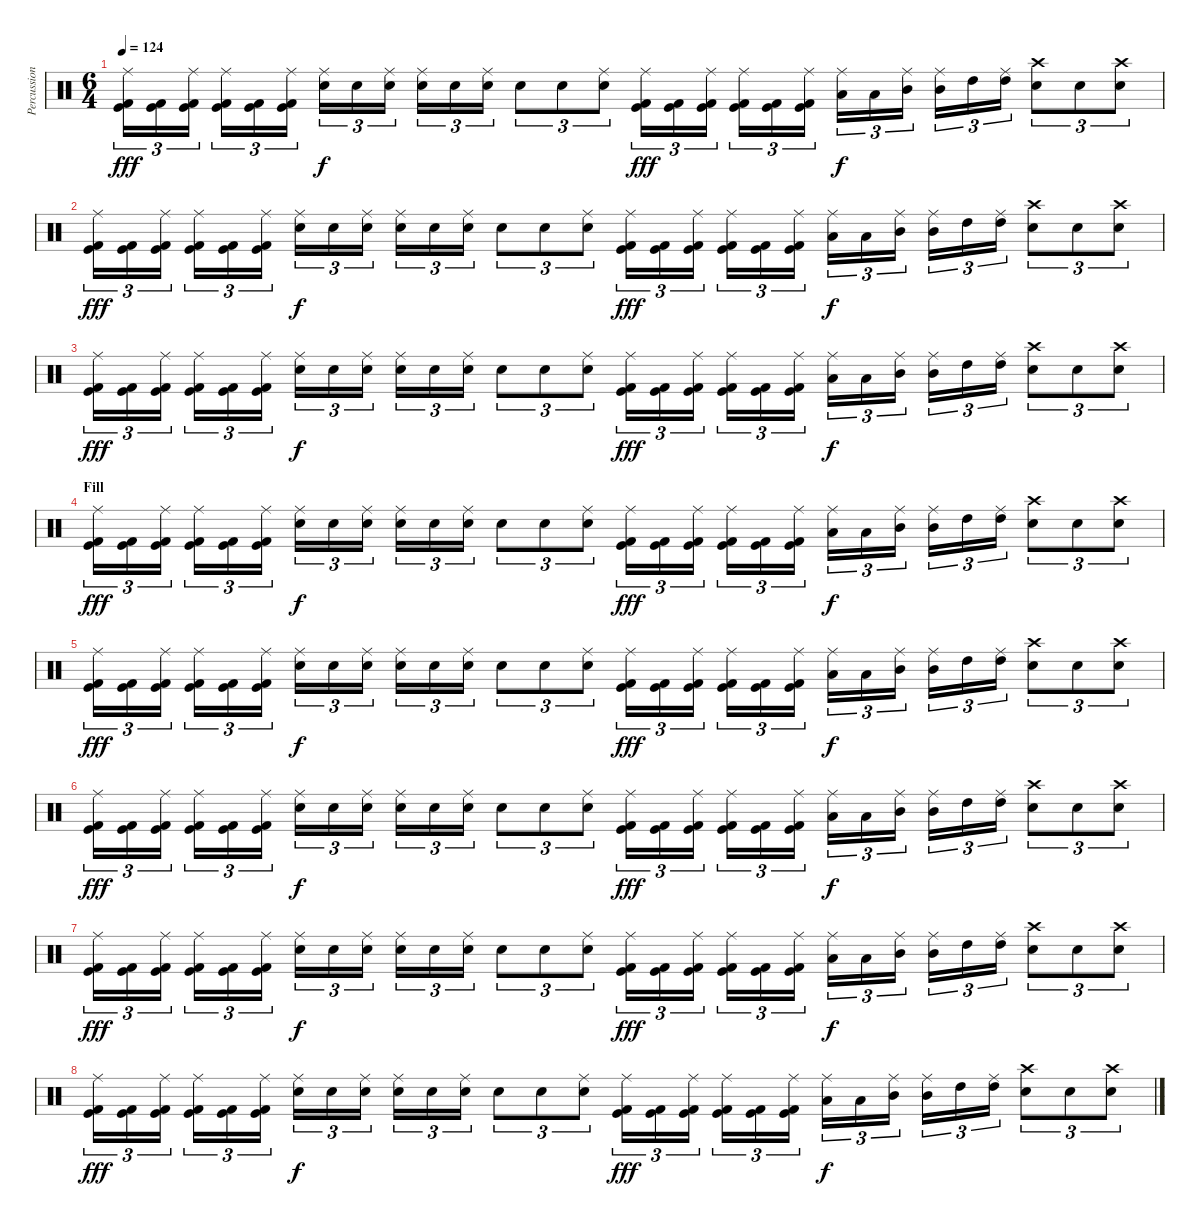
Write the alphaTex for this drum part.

\track ("Percussion" "Percussion") {instrument percussion}
\staff {score}
\articulation defaults
\ts (6 4)
\tempo 124
\clef neutral
\ks c
("Ride (middle)" "Kick (hit) 2" "Kick (hit)").16{tu (3 2) dy fff} ("Kick (hit) 2" "Kick (hit)").16{tu (3 2)} ("Ride (middle)" "Kick (hit) 2" "Kick (hit)").16{tu (3 2)} ("Ride (middle)" "Kick (hit) 2" "Kick (hit)").16{tu (3 2)} ("Kick (hit) 2" "Kick (hit)").16{tu (3 2)} ("Ride (middle)" "Kick (hit) 2" "Kick (hit)").16{tu (3 2)} ("Ride (middle)" "Snare (hit) 2").16{tu (3 2) dy f} "Snare (hit) 2".16{tu (3 2)} ("Ride (middle)" "Snare (hit) 2").16{tu (3 2)} ("Ride (middle)" "Snare (hit) 2").16{tu (3 2)} "Snare (hit) 2".16{tu (3 2)} ("Ride (middle)" "Snare (hit) 2").16{tu (3 2)} "Snare (hit) 2".8{tu (3 2)} "Snare (hit) 2".8{tu (3 2)} ("Ride (middle)" "Snare (hit) 2").8{tu (3 2)} ("Ride (middle)" "Kick (hit) 2" "Kick (hit)").16{tu (3 2) dy fff} ("Kick (hit) 2" "Kick (hit)").16{tu (3 2)} ("Ride (middle)" "Kick (hit) 2" "Kick (hit)").16{tu (3 2)} ("Ride (middle)" "Kick (hit) 2" "Kick (hit)").16{tu (3 2)} ("Kick (hit) 2" "Kick (hit)").16{tu (3 2)} ("Ride (middle)" "Kick (hit) 2" "Kick (hit)").16{tu (3 2)} ("Ride (middle)" "Low Tom (hit)").16{tu (3 2) dy f} "Low Tom (hit)".16{tu (3 2)} ("Ride (middle)" "Mid Tom (hit)").16{tu (3 2)} ("Ride (middle)" "Mid Tom (hit)").16{tu (3 2)} "High Tom (hit)".16{tu (3 2)} ("Ride (middle)" "High Tom (hit)").16{tu (3 2)} ("Crash high (hit)" "Snare (hit) 2").8{tu (3 2)} "Snare (hit) 2".8{tu (3 2)} ("Crash high (hit)" "Snare (hit) 2").8{tu (3 2)} |
("Ride (middle)" "Kick (hit) 2" "Kick (hit)").16{tu (3 2) dy fff} ("Kick (hit) 2" "Kick (hit)").16{tu (3 2)} ("Ride (middle)" "Kick (hit) 2" "Kick (hit)").16{tu (3 2)} ("Ride (middle)" "Kick (hit) 2" "Kick (hit)").16{tu (3 2)} ("Kick (hit) 2" "Kick (hit)").16{tu (3 2)} ("Ride (middle)" "Kick (hit) 2" "Kick (hit)").16{tu (3 2)} ("Ride (middle)" "Snare (hit) 2").16{tu (3 2) dy f} "Snare (hit) 2".16{tu (3 2)} ("Ride (middle)" "Snare (hit) 2").16{tu (3 2)} ("Ride (middle)" "Snare (hit) 2").16{tu (3 2)} "Snare (hit) 2".16{tu (3 2)} ("Ride (middle)" "Snare (hit) 2").16{tu (3 2)} "Snare (hit) 2".8{tu (3 2)} "Snare (hit) 2".8{tu (3 2)} ("Ride (middle)" "Snare (hit) 2").8{tu (3 2)} ("Ride (middle)" "Kick (hit) 2" "Kick (hit)").16{tu (3 2) dy fff} ("Kick (hit) 2" "Kick (hit)").16{tu (3 2)} ("Ride (middle)" "Kick (hit) 2" "Kick (hit)").16{tu (3 2)} ("Ride (middle)" "Kick (hit) 2" "Kick (hit)").16{tu (3 2)} ("Kick (hit) 2" "Kick (hit)").16{tu (3 2)} ("Ride (middle)" "Kick (hit) 2" "Kick (hit)").16{tu (3 2)} ("Ride (middle)" "Low Tom (hit)").16{tu (3 2) dy f} "Low Tom (hit)".16{tu (3 2)} ("Ride (middle)" "Mid Tom (hit)").16{tu (3 2)} ("Ride (middle)" "Mid Tom (hit)").16{tu (3 2)} "High Tom (hit)".16{tu (3 2)} ("Ride (middle)" "High Tom (hit)").16{tu (3 2)} ("Crash high (hit)" "Snare (hit) 2").8{tu (3 2)} "Snare (hit) 2".8{tu (3 2)} ("Crash high (hit)" "Snare (hit) 2").8{tu (3 2)} |
("Ride (middle)" "Kick (hit) 2" "Kick (hit)").16{tu (3 2) dy fff} ("Kick (hit) 2" "Kick (hit)").16{tu (3 2)} ("Ride (middle)" "Kick (hit) 2" "Kick (hit)").16{tu (3 2)} ("Ride (middle)" "Kick (hit) 2" "Kick (hit)").16{tu (3 2)} ("Kick (hit) 2" "Kick (hit)").16{tu (3 2)} ("Ride (middle)" "Kick (hit) 2" "Kick (hit)").16{tu (3 2)} ("Ride (middle)" "Snare (hit) 2").16{tu (3 2) dy f} "Snare (hit) 2".16{tu (3 2)} ("Ride (middle)" "Snare (hit) 2").16{tu (3 2)} ("Ride (middle)" "Snare (hit) 2").16{tu (3 2)} "Snare (hit) 2".16{tu (3 2)} ("Ride (middle)" "Snare (hit) 2").16{tu (3 2)} "Snare (hit) 2".8{tu (3 2)} "Snare (hit) 2".8{tu (3 2)} ("Ride (middle)" "Snare (hit) 2").8{tu (3 2)} ("Ride (middle)" "Kick (hit) 2" "Kick (hit)").16{tu (3 2) dy fff} ("Kick (hit) 2" "Kick (hit)").16{tu (3 2)} ("Ride (middle)" "Kick (hit) 2" "Kick (hit)").16{tu (3 2)} ("Ride (middle)" "Kick (hit) 2" "Kick (hit)").16{tu (3 2)} ("Kick (hit) 2" "Kick (hit)").16{tu (3 2)} ("Ride (middle)" "Kick (hit) 2" "Kick (hit)").16{tu (3 2)} ("Ride (middle)" "Low Tom (hit)").16{tu (3 2) dy f} "Low Tom (hit)".16{tu (3 2)} ("Ride (middle)" "Mid Tom (hit)").16{tu (3 2)} ("Ride (middle)" "Mid Tom (hit)").16{tu (3 2)} "High Tom (hit)".16{tu (3 2)} ("Ride (middle)" "High Tom (hit)").16{tu (3 2)} ("Crash high (hit)" "Snare (hit) 2").8{tu (3 2)} "Snare (hit) 2".8{tu (3 2)} ("Crash high (hit)" "Snare (hit) 2").8{tu (3 2)} |
\section ("" "Fill")
("Ride (middle)" "Kick (hit) 2" "Kick (hit)").16{tu (3 2) dy fff} ("Kick (hit) 2" "Kick (hit)").16{tu (3 2)} ("Ride (middle)" "Kick (hit) 2" "Kick (hit)").16{tu (3 2)} ("Ride (middle)" "Kick (hit) 2" "Kick (hit)").16{tu (3 2)} ("Kick (hit) 2" "Kick (hit)").16{tu (3 2)} ("Ride (middle)" "Kick (hit) 2" "Kick (hit)").16{tu (3 2)} ("Ride (middle)" "Snare (hit) 2").16{tu (3 2) dy f} "Snare (hit) 2".16{tu (3 2)} ("Ride (middle)" "Snare (hit) 2").16{tu (3 2)} ("Ride (middle)" "Snare (hit) 2").16{tu (3 2)} "Snare (hit) 2".16{tu (3 2)} ("Ride (middle)" "Snare (hit) 2").16{tu (3 2)} "Snare (hit) 2".8{tu (3 2)} "Snare (hit) 2".8{tu (3 2)} ("Ride (middle)" "Snare (hit) 2").8{tu (3 2)} ("Ride (middle)" "Kick (hit) 2" "Kick (hit)").16{tu (3 2) dy fff} ("Kick (hit) 2" "Kick (hit)").16{tu (3 2)} ("Ride (middle)" "Kick (hit) 2" "Kick (hit)").16{tu (3 2)} ("Ride (middle)" "Kick (hit) 2" "Kick (hit)").16{tu (3 2)} ("Kick (hit) 2" "Kick (hit)").16{tu (3 2)} ("Ride (middle)" "Kick (hit) 2" "Kick (hit)").16{tu (3 2)} ("Ride (middle)" "Low Tom (hit)").16{tu (3 2) dy f} "Low Tom (hit)".16{tu (3 2)} ("Ride (middle)" "Mid Tom (hit)").16{tu (3 2)} ("Ride (middle)" "Mid Tom (hit)").16{tu (3 2)} "High Tom (hit)".16{tu (3 2)} ("Ride (middle)" "High Tom (hit)").16{tu (3 2)} ("Crash high (hit)" "Snare (hit) 2").8{tu (3 2)} "Snare (hit) 2".8{tu (3 2)} ("Crash high (hit)" "Snare (hit) 2").8{tu (3 2)} |
("Ride (middle)" "Kick (hit) 2" "Kick (hit)").16{tu (3 2) dy fff} ("Kick (hit) 2" "Kick (hit)").16{tu (3 2)} ("Ride (middle)" "Kick (hit) 2" "Kick (hit)").16{tu (3 2)} ("Ride (middle)" "Kick (hit) 2" "Kick (hit)").16{tu (3 2)} ("Kick (hit) 2" "Kick (hit)").16{tu (3 2)} ("Ride (middle)" "Kick (hit) 2" "Kick (hit)").16{tu (3 2)} ("Ride (middle)" "Snare (hit) 2").16{tu (3 2) dy f} "Snare (hit) 2".16{tu (3 2)} ("Ride (middle)" "Snare (hit) 2").16{tu (3 2)} ("Ride (middle)" "Snare (hit) 2").16{tu (3 2)} "Snare (hit) 2".16{tu (3 2)} ("Ride (middle)" "Snare (hit) 2").16{tu (3 2)} "Snare (hit) 2".8{tu (3 2)} "Snare (hit) 2".8{tu (3 2)} ("Ride (middle)" "Snare (hit) 2").8{tu (3 2)} ("Ride (middle)" "Kick (hit) 2" "Kick (hit)").16{tu (3 2) dy fff} ("Kick (hit) 2" "Kick (hit)").16{tu (3 2)} ("Ride (middle)" "Kick (hit) 2" "Kick (hit)").16{tu (3 2)} ("Ride (middle)" "Kick (hit) 2" "Kick (hit)").16{tu (3 2)} ("Kick (hit) 2" "Kick (hit)").16{tu (3 2)} ("Ride (middle)" "Kick (hit) 2" "Kick (hit)").16{tu (3 2)} ("Ride (middle)" "Low Tom (hit)").16{tu (3 2) dy f} "Low Tom (hit)".16{tu (3 2)} ("Ride (middle)" "Mid Tom (hit)").16{tu (3 2)} ("Ride (middle)" "Mid Tom (hit)").16{tu (3 2)} "High Tom (hit)".16{tu (3 2)} ("Ride (middle)" "High Tom (hit)").16{tu (3 2)} ("Crash high (hit)" "Snare (hit) 2").8{tu (3 2)} "Snare (hit) 2".8{tu (3 2)} ("Crash high (hit)" "Snare (hit) 2").8{tu (3 2)} |
("Ride (middle)" "Kick (hit) 2" "Kick (hit)").16{tu (3 2) dy fff} ("Kick (hit) 2" "Kick (hit)").16{tu (3 2)} ("Ride (middle)" "Kick (hit) 2" "Kick (hit)").16{tu (3 2)} ("Ride (middle)" "Kick (hit) 2" "Kick (hit)").16{tu (3 2)} ("Kick (hit) 2" "Kick (hit)").16{tu (3 2)} ("Ride (middle)" "Kick (hit) 2" "Kick (hit)").16{tu (3 2)} ("Ride (middle)" "Snare (hit) 2").16{tu (3 2) dy f} "Snare (hit) 2".16{tu (3 2)} ("Ride (middle)" "Snare (hit) 2").16{tu (3 2)} ("Ride (middle)" "Snare (hit) 2").16{tu (3 2)} "Snare (hit) 2".16{tu (3 2)} ("Ride (middle)" "Snare (hit) 2").16{tu (3 2)} "Snare (hit) 2".8{tu (3 2)} "Snare (hit) 2".8{tu (3 2)} ("Ride (middle)" "Snare (hit) 2").8{tu (3 2)} ("Ride (middle)" "Kick (hit) 2" "Kick (hit)").16{tu (3 2) dy fff} ("Kick (hit) 2" "Kick (hit)").16{tu (3 2)} ("Ride (middle)" "Kick (hit) 2" "Kick (hit)").16{tu (3 2)} ("Ride (middle)" "Kick (hit) 2" "Kick (hit)").16{tu (3 2)} ("Kick (hit) 2" "Kick (hit)").16{tu (3 2)} ("Ride (middle)" "Kick (hit) 2" "Kick (hit)").16{tu (3 2)} ("Ride (middle)" "Low Tom (hit)").16{tu (3 2) dy f} "Low Tom (hit)".16{tu (3 2)} ("Ride (middle)" "Mid Tom (hit)").16{tu (3 2)} ("Ride (middle)" "Mid Tom (hit)").16{tu (3 2)} "High Tom (hit)".16{tu (3 2)} ("Ride (middle)" "High Tom (hit)").16{tu (3 2)} ("Crash high (hit)" "Snare (hit) 2").8{tu (3 2)} "Snare (hit) 2".8{tu (3 2)} ("Crash high (hit)" "Snare (hit) 2").8{tu (3 2)} |
("Ride (middle)" "Kick (hit) 2" "Kick (hit)").16{tu (3 2) dy fff} ("Kick (hit) 2" "Kick (hit)").16{tu (3 2)} ("Ride (middle)" "Kick (hit) 2" "Kick (hit)").16{tu (3 2)} ("Ride (middle)" "Kick (hit) 2" "Kick (hit)").16{tu (3 2)} ("Kick (hit) 2" "Kick (hit)").16{tu (3 2)} ("Ride (middle)" "Kick (hit) 2" "Kick (hit)").16{tu (3 2)} ("Ride (middle)" "Snare (hit) 2").16{tu (3 2) dy f} "Snare (hit) 2".16{tu (3 2)} ("Ride (middle)" "Snare (hit) 2").16{tu (3 2)} ("Ride (middle)" "Snare (hit) 2").16{tu (3 2)} "Snare (hit) 2".16{tu (3 2)} ("Ride (middle)" "Snare (hit) 2").16{tu (3 2)} "Snare (hit) 2".8{tu (3 2)} "Snare (hit) 2".8{tu (3 2)} ("Ride (middle)" "Snare (hit) 2").8{tu (3 2)} ("Ride (middle)" "Kick (hit) 2" "Kick (hit)").16{tu (3 2) dy fff} ("Kick (hit) 2" "Kick (hit)").16{tu (3 2)} ("Ride (middle)" "Kick (hit) 2" "Kick (hit)").16{tu (3 2)} ("Ride (middle)" "Kick (hit) 2" "Kick (hit)").16{tu (3 2)} ("Kick (hit) 2" "Kick (hit)").16{tu (3 2)} ("Ride (middle)" "Kick (hit) 2" "Kick (hit)").16{tu (3 2)} ("Ride (middle)" "Low Tom (hit)").16{tu (3 2) dy f} "Low Tom (hit)".16{tu (3 2)} ("Ride (middle)" "Mid Tom (hit)").16{tu (3 2)} ("Ride (middle)" "Mid Tom (hit)").16{tu (3 2)} "High Tom (hit)".16{tu (3 2)} ("Ride (middle)" "High Tom (hit)").16{tu (3 2)} ("Crash high (hit)" "Snare (hit) 2").8{tu (3 2)} "Snare (hit) 2".8{tu (3 2)} ("Crash high (hit)" "Snare (hit) 2").8{tu (3 2)} |
("Ride (middle)" "Kick (hit) 2" "Kick (hit)").16{tu (3 2) dy fff} ("Kick (hit) 2" "Kick (hit)").16{tu (3 2)} ("Ride (middle)" "Kick (hit) 2" "Kick (hit)").16{tu (3 2)} ("Ride (middle)" "Kick (hit) 2" "Kick (hit)").16{tu (3 2)} ("Kick (hit) 2" "Kick (hit)").16{tu (3 2)} ("Ride (middle)" "Kick (hit) 2" "Kick (hit)").16{tu (3 2)} ("Ride (middle)" "Snare (hit) 2").16{tu (3 2) dy f} "Snare (hit) 2".16{tu (3 2)} ("Ride (middle)" "Snare (hit) 2").16{tu (3 2)} ("Ride (middle)" "Snare (hit) 2").16{tu (3 2)} "Snare (hit) 2".16{tu (3 2)} ("Ride (middle)" "Snare (hit) 2").16{tu (3 2)} "Snare (hit) 2".8{tu (3 2)} "Snare (hit) 2".8{tu (3 2)} ("Ride (middle)" "Snare (hit) 2").8{tu (3 2)} ("Ride (middle)" "Kick (hit) 2" "Kick (hit)").16{tu (3 2) dy fff} ("Kick (hit) 2" "Kick (hit)").16{tu (3 2)} ("Ride (middle)" "Kick (hit) 2" "Kick (hit)").16{tu (3 2)} ("Ride (middle)" "Kick (hit) 2" "Kick (hit)").16{tu (3 2)} ("Kick (hit) 2" "Kick (hit)").16{tu (3 2)} ("Ride (middle)" "Kick (hit) 2" "Kick (hit)").16{tu (3 2)} ("Ride (middle)" "Low Tom (hit)").16{tu (3 2) dy f} "Low Tom (hit)".16{tu (3 2)} ("Ride (middle)" "Mid Tom (hit)").16{tu (3 2)} ("Ride (middle)" "Mid Tom (hit)").16{tu (3 2)} "High Tom (hit)".16{tu (3 2)} ("Ride (middle)" "High Tom (hit)").16{tu (3 2)} ("Crash high (hit)" "Snare (hit) 2").8{tu (3 2)} "Snare (hit) 2".8{tu (3 2)} ("Crash high (hit)" "Snare (hit) 2").8{tu (3 2)}
